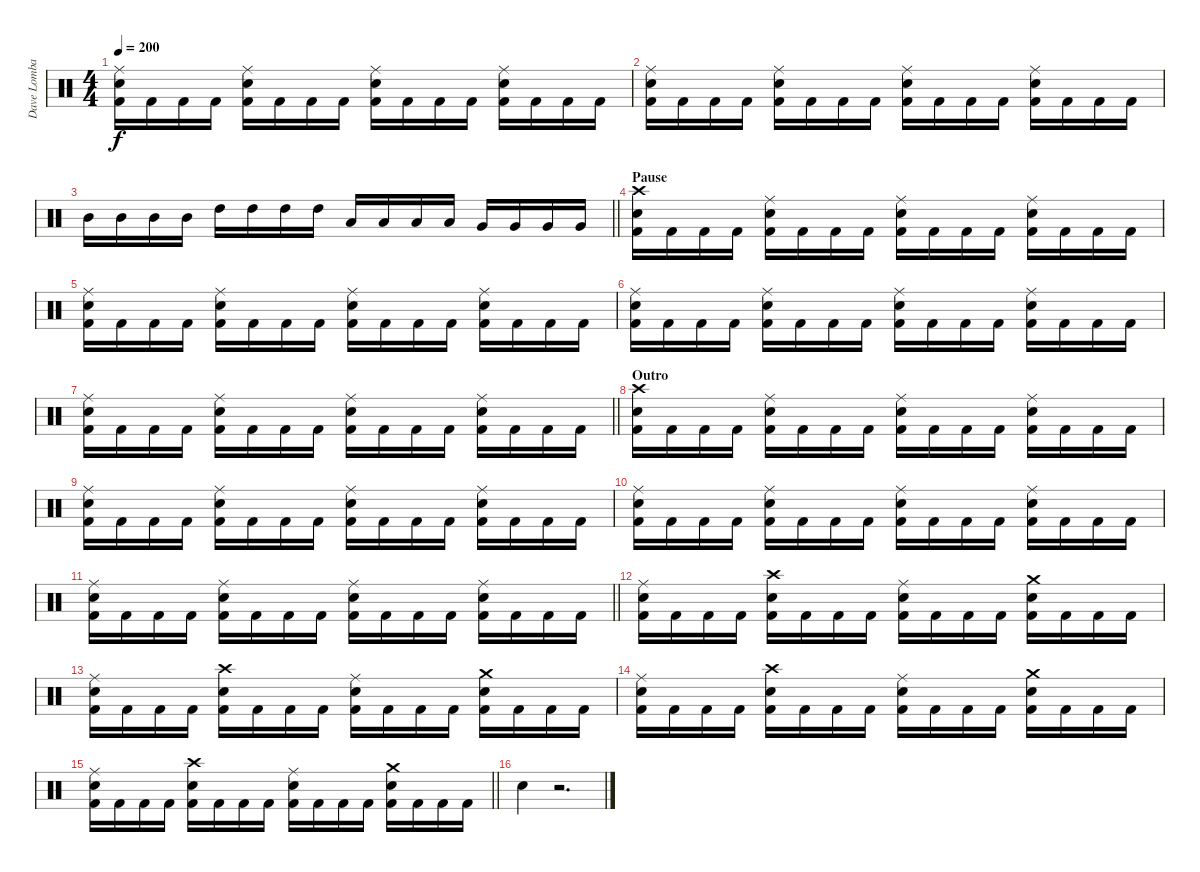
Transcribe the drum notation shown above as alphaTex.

\track ("Dave Lombardo (Drums)" "Dave Lomba") {instrument percussion}
\staff {score}
\articulation defaults
\ts (4 4)
\tempo 200
\clef neutral
\ks c
("Ride (middle)" "Snare (hit) 2" "Kick (hit) 2").16{dy f} "Kick (hit) 2".16 "Kick (hit) 2".16 "Kick (hit) 2".16 ("Ride (middle)" "Snare (hit) 2" "Kick (hit) 2").16 "Kick (hit) 2".16 "Kick (hit) 2".16 "Kick (hit) 2".16 ("Ride (middle)" "Snare (hit) 2" "Kick (hit) 2").16 "Kick (hit) 2".16 "Kick (hit) 2".16 "Kick (hit) 2".16 ("Ride (middle)" "Snare (hit) 2" "Kick (hit) 2").16 "Kick (hit) 2".16 "Kick (hit) 2".16 "Kick (hit) 2".16 |
("Ride (middle)" "Snare (hit) 2" "Kick (hit) 2").16 "Kick (hit) 2".16 "Kick (hit) 2".16 "Kick (hit) 2".16 ("Ride (middle)" "Snare (hit) 2" "Kick (hit) 2").16 "Kick (hit) 2".16 "Kick (hit) 2".16 "Kick (hit) 2".16 ("Ride (middle)" "Snare (hit) 2" "Kick (hit) 2").16 "Kick (hit) 2".16 "Kick (hit) 2".16 "Kick (hit) 2".16 ("Ride (middle)" "Snare (hit) 2" "Kick (hit) 2").16 "Kick (hit) 2".16 "Kick (hit) 2".16 "Kick (hit) 2".16 |
\barLineRight lightlight "Mid Tom (hit)".16 "Mid Tom (hit)".16 "Mid Tom (hit)".16 "Mid Tom (hit)".16 "High Tom (hit)".16 "High Tom (hit)".16 "High Tom (hit)".16 "High Tom (hit)".16 "Low Tom (hit)".16 "Low Tom (hit)".16 "Low Tom (hit)".16 "Low Tom (hit)".16 "Very Low Tom (hit)".16 "Very Low Tom (hit)".16 "Very Low Tom (hit)".16 "Very Low Tom (hit)".16
|
\section ("" "Pause")
("Crash high (hit)" "Snare (hit) 2" "Kick (hit) 2").16 "Kick (hit) 2".16 "Kick (hit) 2".16 "Kick (hit) 2".16 ("Ride (middle)" "Snare (hit) 2" "Kick (hit) 2").16 "Kick (hit) 2".16 "Kick (hit) 2".16 "Kick (hit) 2".16 ("Ride (middle)" "Snare (hit) 2" "Kick (hit) 2").16 "Kick (hit) 2".16 "Kick (hit) 2".16 "Kick (hit) 2".16 ("Ride (middle)" "Snare (hit) 2" "Kick (hit) 2").16 "Kick (hit) 2".16 "Kick (hit) 2".16 "Kick (hit) 2".16 |
("Ride (middle)" "Snare (hit) 2" "Kick (hit) 2").16 "Kick (hit) 2".16 "Kick (hit) 2".16 "Kick (hit) 2".16 ("Ride (middle)" "Snare (hit) 2" "Kick (hit) 2").16 "Kick (hit) 2".16 "Kick (hit) 2".16 "Kick (hit) 2".16 ("Ride (middle)" "Snare (hit) 2" "Kick (hit) 2").16 "Kick (hit) 2".16 "Kick (hit) 2".16 "Kick (hit) 2".16 ("Ride (middle)" "Snare (hit) 2" "Kick (hit) 2").16 "Kick (hit) 2".16 "Kick (hit) 2".16 "Kick (hit) 2".16 |
("Ride (middle)" "Snare (hit) 2" "Kick (hit) 2").16 "Kick (hit) 2".16 "Kick (hit) 2".16 "Kick (hit) 2".16 ("Ride (middle)" "Snare (hit) 2" "Kick (hit) 2").16 "Kick (hit) 2".16 "Kick (hit) 2".16 "Kick (hit) 2".16 ("Ride (middle)" "Snare (hit) 2" "Kick (hit) 2").16 "Kick (hit) 2".16 "Kick (hit) 2".16 "Kick (hit) 2".16 ("Ride (middle)" "Snare (hit) 2" "Kick (hit) 2").16 "Kick (hit) 2".16 "Kick (hit) 2".16 "Kick (hit) 2".16 |
\barLineRight lightlight
("Ride (middle)" "Snare (hit) 2" "Kick (hit) 2").16 "Kick (hit) 2".16 "Kick (hit) 2".16 "Kick (hit) 2".16 ("Ride (middle)" "Snare (hit) 2" "Kick (hit) 2").16 "Kick (hit) 2".16 "Kick (hit) 2".16 "Kick (hit) 2".16 ("Ride (middle)" "Snare (hit) 2" "Kick (hit) 2").16 "Kick (hit) 2".16 "Kick (hit) 2".16 "Kick (hit) 2".16 ("Ride (middle)" "Snare (hit) 2" "Kick (hit) 2").16 "Kick (hit) 2".16 "Kick (hit) 2".16 "Kick (hit) 2".16 |
\section ("" "Outro")
("Crash high (hit)" "Snare (hit) 2" "Kick (hit) 2").16 "Kick (hit) 2".16 "Kick (hit) 2".16 "Kick (hit) 2".16 ("Ride (middle)" "Snare (hit) 2" "Kick (hit) 2").16 "Kick (hit) 2".16 "Kick (hit) 2".16 "Kick (hit) 2".16 ("Ride (middle)" "Snare (hit) 2" "Kick (hit) 2").16 "Kick (hit) 2".16 "Kick (hit) 2".16 "Kick (hit) 2".16 ("Ride (middle)" "Snare (hit) 2" "Kick (hit) 2").16 "Kick (hit) 2".16 "Kick (hit) 2".16 "Kick (hit) 2".16 |
("Ride (middle)" "Snare (hit) 2" "Kick (hit) 2").16 "Kick (hit) 2".16 "Kick (hit) 2".16 "Kick (hit) 2".16 ("Ride (middle)" "Snare (hit) 2" "Kick (hit) 2").16 "Kick (hit) 2".16 "Kick (hit) 2".16 "Kick (hit) 2".16 ("Ride (middle)" "Snare (hit) 2" "Kick (hit) 2").16 "Kick (hit) 2".16 "Kick (hit) 2".16 "Kick (hit) 2".16 ("Ride (middle)" "Snare (hit) 2" "Kick (hit) 2").16 "Kick (hit) 2".16 "Kick (hit) 2".16 "Kick (hit) 2".16 |
("Ride (middle)" "Snare (hit) 2" "Kick (hit) 2").16 "Kick (hit) 2".16 "Kick (hit) 2".16 "Kick (hit) 2".16 ("Ride (middle)" "Snare (hit) 2" "Kick (hit) 2").16 "Kick (hit) 2".16 "Kick (hit) 2".16 "Kick (hit) 2".16 ("Ride (middle)" "Snare (hit) 2" "Kick (hit) 2").16 "Kick (hit) 2".16 "Kick (hit) 2".16 "Kick (hit) 2".16 ("Ride (middle)" "Snare (hit) 2" "Kick (hit) 2").16 "Kick (hit) 2".16 "Kick (hit) 2".16 "Kick (hit) 2".16 |
\barLineRight lightlight
("Ride (middle)" "Snare (hit) 2" "Kick (hit) 2").16 "Kick (hit) 2".16 "Kick (hit) 2".16 "Kick (hit) 2".16 ("Ride (middle)" "Snare (hit) 2" "Kick (hit) 2").16 "Kick (hit) 2".16 "Kick (hit) 2".16 "Kick (hit) 2".16 ("Ride (middle)" "Snare (hit) 2" "Kick (hit) 2").16 "Kick (hit) 2".16 "Kick (hit) 2".16 "Kick (hit) 2".16 ("Ride (middle)" "Snare (hit) 2" "Kick (hit) 2").16 "Kick (hit) 2".16 "Kick (hit) 2".16 "Kick (hit) 2".16 |
("Ride (middle)" "Snare (hit) 2" "Kick (hit) 2").16 "Kick (hit) 2".16 "Kick (hit) 2".16 "Kick (hit) 2".16 ("Crash high (hit)" "Snare (hit) 2" "Kick (hit) 2").16 "Kick (hit) 2".16 "Kick (hit) 2".16 "Kick (hit) 2".16 ("Ride (middle)" "Snare (hit) 2" "Kick (hit) 2").16 "Kick (hit) 2".16 "Kick (hit) 2".16 "Kick (hit) 2".16 ("Crash medium (hit)" "Snare (hit) 2" "Kick (hit) 2").16 "Kick (hit) 2".16 "Kick (hit) 2".16 "Kick (hit) 2".16 |
("Ride (middle)" "Snare (hit) 2" "Kick (hit) 2").16 "Kick (hit) 2".16 "Kick (hit) 2".16 "Kick (hit) 2".16 ("Crash high (hit)" "Snare (hit) 2" "Kick (hit) 2").16 "Kick (hit) 2".16 "Kick (hit) 2".16 "Kick (hit) 2".16 ("Ride (middle)" "Snare (hit) 2" "Kick (hit) 2").16 "Kick (hit) 2".16 "Kick (hit) 2".16 "Kick (hit) 2".16 ("Crash medium (hit)" "Snare (hit) 2" "Kick (hit) 2").16 "Kick (hit) 2".16 "Kick (hit) 2".16 "Kick (hit) 2".16 |
("Ride (middle)" "Snare (hit) 2" "Kick (hit) 2").16 "Kick (hit) 2".16 "Kick (hit) 2".16 "Kick (hit) 2".16 ("Crash high (hit)" "Snare (hit) 2" "Kick (hit) 2").16 "Kick (hit) 2".16 "Kick (hit) 2".16 "Kick (hit) 2".16 ("Ride (middle)" "Snare (hit) 2" "Kick (hit) 2").16 "Kick (hit) 2".16 "Kick (hit) 2".16 "Kick (hit) 2".16 ("Crash medium (hit)" "Snare (hit) 2" "Kick (hit) 2").16 "Kick (hit) 2".16 "Kick (hit) 2".16 "Kick (hit) 2".16 |
\barLineRight lightlight
("Ride (middle)" "Snare (hit) 2" "Kick (hit) 2").16 "Kick (hit) 2".16 "Kick (hit) 2".16 "Kick (hit) 2".16 ("Crash high (hit)" "Snare (hit) 2" "Kick (hit) 2").16 "Kick (hit) 2".16 "Kick (hit) 2".16 "Kick (hit) 2".16 ("Ride (middle)" "Snare (hit) 2" "Kick (hit) 2").16 "Kick (hit) 2".16 "Kick (hit) 2".16 "Kick (hit) 2".16 ("Crash medium (hit)" "Snare (hit) 2" "Kick (hit) 2").16 "Kick (hit) 2".16 "Kick (hit) 2".16 "Kick (hit) 2".16 |
"Snare (hit) 2".4 r.2{d}
